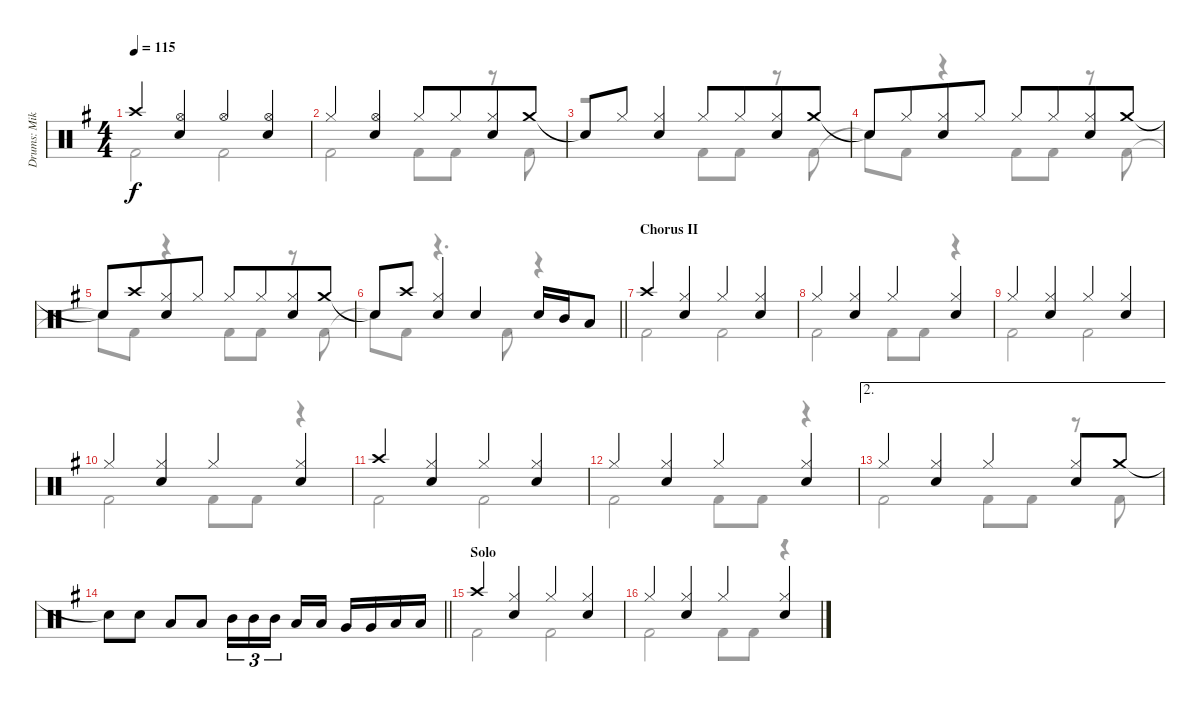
\track ("Drums: Mikkey" "Drums: Mik") {instrument percussion}
\staff {score}
\articulation defaults
\voice
\ts (4 4)
\tempo 115
\clef neutral
\ks g "Crash high (hit)".4{dy f}
("Hi-Hat (open)" "Snare (hit) 2").4 "Hi-Hat (open)".4 ("Hi-Hat (open)" "Snare (hit) 2").4 |
"Hi-Hat (closed)".4 ("Hi-Hat (open)" "Snare (hit) 2").4 "Hi-Hat (closed)".8 "Hi-Hat (closed)".8{beam merge} ("Hi-Hat (closed)" "Snare (hit) 2").8 "Crash medium (hit)".8 |
"Snare (hit)"{t}.8 "Hi-Hat (closed)".8 ("Hi-Hat (closed)" "Snare (hit) 2").4 "Hi-Hat (closed)".8 "Hi-Hat (closed)".8{beam merge} ("Hi-Hat (closed)" "Snare (hit) 2").8 "Crash medium (hit)".8 |
"Snare (hit)"{t}.8 "Hi-Hat (closed)".8{beam merge} ("Hi-Hat (closed)" "Snare (hit) 2").8 "Hi-Hat (closed)".8 "Hi-Hat (closed)".8 "Hi-Hat (closed)".8{beam merge} ("Hi-Hat (closed)" "Snare (hit) 2").8 "Crash medium (hit)".8 |
"Snare (hit)"{t}.8 "Crash high (hit)".8{beam merge} ("Hi-Hat (closed)" "Snare (hit) 2").8 "Hi-Hat (closed)".8 "Hi-Hat (closed)".8 "Hi-Hat (closed)".8{beam merge} ("Hi-Hat (closed)" "Snare (hit) 2").8 "Crash medium (hit)".8 |
\barLineRight lightlight "Snare (hit)"{t}.8 "Crash high (hit)".8{beam merge}
("Hi-Hat (closed)" "Snare (hit) 2").4 "Snare (hit) 2".4 "Snare (hit) 2".16 "Mid Tom (hit)".16 "Low Tom (hit)".8 |
\section ("" "Chorus II")
"Crash high (hit)".4 ("Hi-Hat (closed)" "Snare (hit) 2").4 "Hi-Hat (closed)".4 ("Hi-Hat (closed)" "Snare (hit) 2").4 |
"Hi-Hat (closed)".4 ("Hi-Hat (closed)" "Snare (hit) 2").4 "Hi-Hat (closed)".4 ("Hi-Hat (closed)" "Snare (hit) 2").4 |
"Hi-Hat (closed)".4 ("Hi-Hat (closed)" "Snare (hit) 2").4 "Hi-Hat (closed)".4 ("Hi-Hat (closed)" "Snare (hit) 2").4 |
"Hi-Hat (closed)".4 ("Hi-Hat (closed)" "Snare (hit) 2").4 "Hi-Hat (closed)".4 ("Hi-Hat (closed)" "Snare (hit) 2").4 |
"Crash high (hit)".4 ("Hi-Hat (closed)" "Snare (hit) 2").4 "Hi-Hat (closed)".4 ("Hi-Hat (closed)" "Snare (hit) 2").4 |
"Hi-Hat (closed)".4 ("Hi-Hat (closed)" "Snare (hit) 2").4 "Hi-Hat (closed)".4 ("Hi-Hat (closed)" "Snare (hit) 2").4 |
\ae 2 "Hi-Hat (closed)".4
("Hi-Hat (closed)" "Snare (hit) 2").4 "Hi-Hat (closed)".4 ("Hi-Hat (closed)" "Snare (hit) 2").8 "Crash medium (hit)".8 |
\barLineRight lightlight "Snare (hit)"{t}.8 "Snare (hit) 2".8 "Low Tom (hit)".8 "Low Tom (hit)".8 "Mid Tom (hit)".16{tu (3 2)} "Mid Tom (hit)".16{tu (3 2)} "Mid Tom (hit)".16{tu (3 2) beam splitsecondary} "Low Tom (hit)".16 "Low Tom (hit)".16 "Very Low Tom (hit)".16 "Very Low Tom (hit)".16 "Low Floor Tom (hit)".16 "Low Floor Tom (hit)".16
|
\section ("" "Solo")
"Crash high (hit)".4 ("Hi-Hat (closed)" "Snare (hit) 2").4 "Hi-Hat (closed)".4 ("Hi-Hat (closed)" "Snare (hit) 2").4 |
"Hi-Hat (closed)".4 ("Hi-Hat (closed)" "Snare (hit) 2").4 "Hi-Hat (closed)".4 ("Hi-Hat (closed)" "Snare (hit) 2").4
\voice
\clef neutral
\ottava regular
\simile none
\ks g "Kick (hit) 2".2{dy f} "Kick (hit) 2".2
|
"Kick (hit) 2".2 "Kick (hit) 2".8 "Kick (hit) 2".8 r.8 "Kick (hit) 2".8 |
r.2 "Kick (hit) 2".8 "Kick (hit) 2".8 r.8 "Kick (hit) 2".8 |
"Snare (hit)"{t}.8 "Kick (hit) 2".8 r.4 "Kick (hit) 2".8 "Kick (hit) 2".8 r.8 "Kick (hit) 2".8 |
"Snare (hit)"{t}.8 "Kick (hit) 2".8 r.4 "Kick (hit) 2".8 "Kick (hit) 2".8 r.8 "Kick (hit) 2".8 |
\barLineRight lightlight "Snare (hit)"{t}.8 "Kick (hit) 2".8
r.4{d} "Kick (hit) 2".8 r.4 |
"Kick (hit) 2".2 "Kick (hit) 2".2 |
"Kick (hit) 2".2 "Kick (hit) 2".8 "Kick (hit) 2".8 r.4 |
"Kick (hit) 2".2 "Kick (hit) 2".2 |
"Kick (hit) 2".2 "Kick (hit) 2".8 "Kick (hit) 2".8 r.4 |
"Kick (hit) 2".2 "Kick (hit) 2".2 |
"Kick (hit) 2".2 "Kick (hit) 2".8 "Kick (hit) 2".8 r.4 |
"Kick (hit) 2".2 "Kick (hit) 2".8 "Kick (hit) 2".8 r.8 "Kick (hit) 2".8 |
\barLineRight lightlight
|
"Kick (hit) 2".2 "Kick (hit) 2".2 |
"Kick (hit) 2".2 "Kick (hit) 2".8 "Kick (hit) 2".8 r.4
